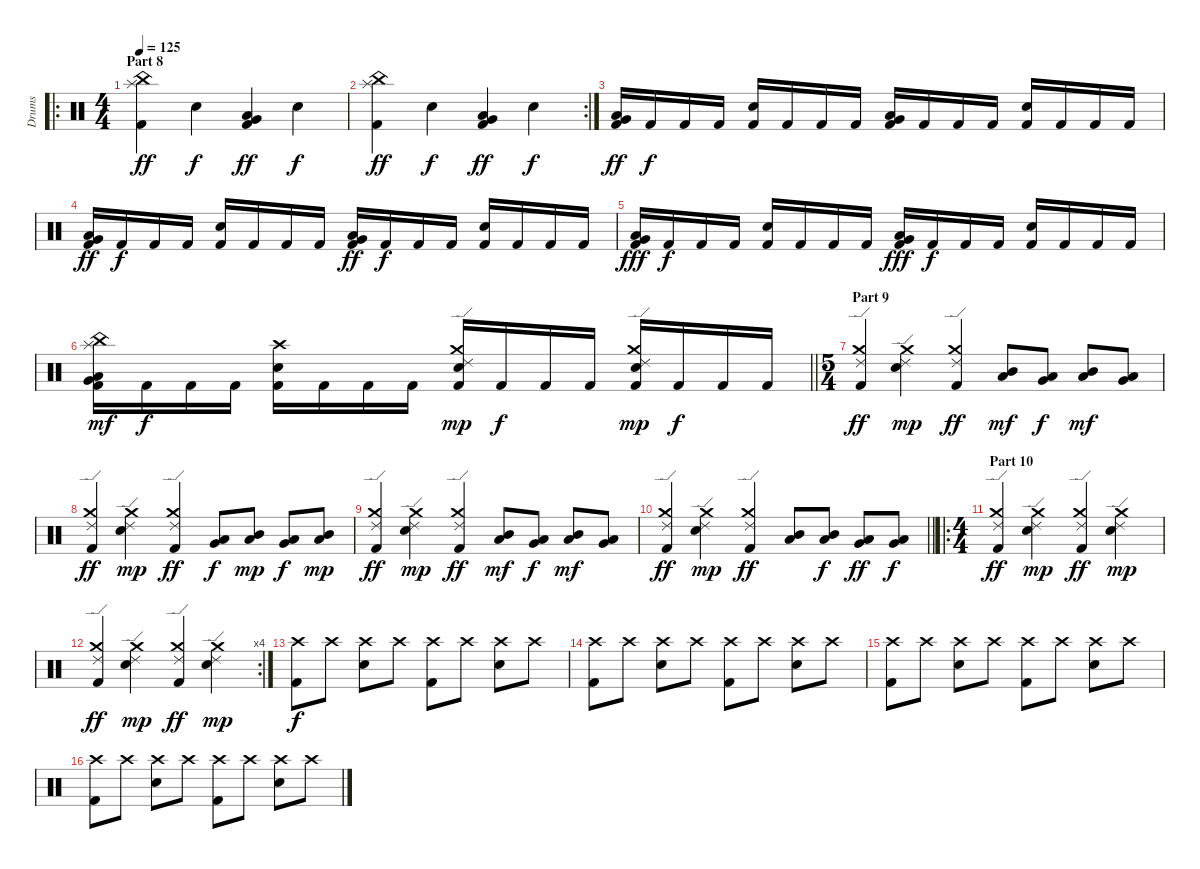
\track ("Drums" "Drums") {instrument percussion}
\staff {score}
\articulation defaults
\ro
\ts (4 4)
\section ("" "Part 8")
\tempo 125
\clef neutral
\ks c
("Splash (hit)" "China (hit)" "Kick (hit) 2").4{dy ff} "Electric Snare (hit)".4{dy f} ("Very Low Tom (hit)" "Low Floor Tom (hit)" "Kick (hit) 2").4{dy ff} "Electric Snare (hit)".4{dy f} |
\rc 2
("Splash (hit)" "China (hit)" "Kick (hit) 2").4{dy ff} "Electric Snare (hit)".4{dy f} ("Very Low Tom (hit)" "Low Floor Tom (hit)" "Kick (hit) 2").4{dy ff} "Electric Snare (hit)".4{dy f} |
("Very Low Tom (hit)" "Low Floor Tom (hit)" "Kick (hit) 2").16{dy ff} "Kick (hit) 2".16{dy f} "Kick (hit) 2".16 "Kick (hit) 2".16 ("Electric Snare (hit)" "Kick (hit) 2").16 "Kick (hit) 2".16 "Kick (hit) 2".16 "Kick (hit) 2".16 ("Very Low Tom (hit)" "Low Floor Tom (hit)" "Kick (hit) 2").16 "Kick (hit) 2".16 "Kick (hit) 2".16 "Kick (hit) 2".16 ("Electric Snare (hit)" "Kick (hit) 2").16 "Kick (hit) 2".16 "Kick (hit) 2".16 "Kick (hit) 2".16 |
("Very Low Tom (hit)" "Low Floor Tom (hit)" "Kick (hit) 2").16{dy ff} "Kick (hit) 2".16{dy f} "Kick (hit) 2".16 "Kick (hit) 2".16 ("Electric Snare (hit)" "Kick (hit) 2").16 "Kick (hit) 2".16 "Kick (hit) 2".16 "Kick (hit) 2".16 ("Very Low Tom (hit)" "Low Floor Tom (hit)" "Kick (hit) 2").16{dy ff} "Kick (hit) 2".16{dy f} "Kick (hit) 2".16 "Kick (hit) 2".16 ("Electric Snare (hit)" "Kick (hit) 2").16 "Kick (hit) 2".16 "Kick (hit) 2".16 "Kick (hit) 2".16 |
("Very Low Tom (hit)" "Low Floor Tom (hit)" "Kick (hit) 2").16{dy fff} "Kick (hit) 2".16{dy f} "Kick (hit) 2".16 "Kick (hit) 2".16 ("Electric Snare (hit)" "Kick (hit) 2").16 "Kick (hit) 2".16 "Kick (hit) 2".16 "Kick (hit) 2".16 ("Very Low Tom (hit)" "Low Floor Tom (hit)" "Kick (hit) 2").16{dy fff} "Kick (hit) 2".16{dy f} "Kick (hit) 2".16 "Kick (hit) 2".16 ("Electric Snare (hit)" "Kick (hit) 2").16 "Kick (hit) 2".16 "Kick (hit) 2".16 "Kick (hit) 2".16 |
\barLineRight lightlight
("Splash (hit)" "China (hit)" "Low Floor Tom (hit)" "Very Low Tom (hit)" "Kick (hit) 2").16{dy mf} "Kick (hit) 2".16{dy f} "Kick (hit) 2".16 "Kick (hit) 2".16 ("Crash high (hit)" "Electric Snare (hit)" "Kick (hit) 2").16 "Kick (hit) 2".16 "Kick (hit) 2".16 "Kick (hit) 2".16 ("Crash medium (hit)" "Ride (edge) 2" "Electric Snare (hit)" "Kick (hit) 2").16{dy mp} "Kick (hit) 2".16{dy f} "Kick (hit) 2".16 "Kick (hit) 2".16 ("Crash medium (hit)" "Ride (edge) 2" "Electric Snare (hit)" "Kick (hit) 2").16{dy mp} "Kick (hit) 2".16{dy f} "Kick (hit) 2".16 "Kick (hit) 2".16 |
\ts (5 4)
\section ("" "Part 9")
("Crash medium (hit)" "Ride (edge) 2" "Kick (hit) 2").4{dy ff} ("Crash medium (hit)" "Ride (edge) 2" "Electric Snare (hit)").4{dy mp} ("Crash medium (hit)" "Ride (edge) 2" "Kick (hit) 2").4{dy ff} ("Low Tom (hit)" "Mid Tom (hit)").8{dy mf} ("Very Low Tom (hit)" "Low Floor Tom (hit)").8{dy f} ("Low Tom (hit)" "Mid Tom (hit)").8{dy mf} ("Very Low Tom (hit)" "Low Floor Tom (hit)").8 |
("Crash medium (hit)" "Ride (edge) 2" "Kick (hit) 2").4{dy ff} ("Crash medium (hit)" "Ride (edge) 2" "Electric Snare (hit)").4{dy mp} ("Crash medium (hit)" "Ride (edge) 2" "Kick (hit) 2").4{dy ff} ("Very Low Tom (hit)" "Low Floor Tom (hit)").8{dy f} ("Low Tom (hit)" "Mid Tom (hit)").8{dy mp} ("Very Low Tom (hit)" "Low Floor Tom (hit)").8{dy f} ("Low Tom (hit)" "Mid Tom (hit)").8{dy mp} |
("Crash medium (hit)" "Ride (edge) 2" "Kick (hit) 2").4{dy ff} ("Crash medium (hit)" "Ride (edge) 2" "Electric Snare (hit)").4{dy mp} ("Crash medium (hit)" "Ride (edge) 2" "Kick (hit) 2").4{dy ff} ("Low Tom (hit)" "Mid Tom (hit)").8{dy mf} ("Very Low Tom (hit)" "Low Floor Tom (hit)").8{dy f} ("Low Tom (hit)" "Mid Tom (hit)").8{dy mf} ("Very Low Tom (hit)" "Low Floor Tom (hit)").8 |
\barLineRight lightlight
("Crash medium (hit)" "Ride (edge) 2" "Kick (hit) 2").4{dy ff} ("Crash medium (hit)" "Ride (edge) 2" "Electric Snare (hit)").4{dy mp} ("Crash medium (hit)" "Ride (edge) 2" "Kick (hit) 2").4{dy ff} ("Low Tom (hit)" "Mid Tom (hit)").8 ("Low Tom (hit)" "Mid Tom (hit)").8{dy f} ("Very Low Tom (hit)" "Low Floor Tom (hit)").8{dy ff} ("Very Low Tom (hit)" "Low Floor Tom (hit)").8{dy f} |
\ro
\ts (4 4)
\section ("" "Part 10")
("Crash medium (hit)" "Ride (edge) 2" "Kick (hit) 2").4{dy ff} ("Crash medium (hit)" "Ride (edge) 2" "Electric Snare (hit)").4{dy mp} ("Crash medium (hit)" "Ride (edge) 2" "Kick (hit) 2").4{dy ff} ("Crash medium (hit)" "Ride (edge) 2" "Electric Snare (hit)").4{dy mp} |
\rc 4
("Crash medium (hit)" "Ride (edge) 2" "Kick (hit) 2").4{dy ff} ("Crash medium (hit)" "Ride (edge) 2" "Electric Snare (hit)").4{dy mp} ("Crash medium (hit)" "Ride (edge) 2" "Kick (hit) 2").4{dy ff} ("Crash medium (hit)" "Ride (edge) 2" "Electric Snare (hit)").4{dy mp} |
("Crash high (hit)" "Kick (hit) 2").8{dy f} "Crash high (hit)".8 ("Crash high (hit)" "Electric Snare (hit)").8 "Crash high (hit)".8 ("Crash high (hit)" "Kick (hit) 2").8 "Crash high (hit)".8 ("Crash high (hit)" "Electric Snare (hit)").8 "Crash high (hit)".8 |
("Crash high (hit)" "Kick (hit) 2").8 "Crash high (hit)".8 ("Crash high (hit)" "Electric Snare (hit)").8 "Crash high (hit)".8 ("Crash high (hit)" "Kick (hit) 2").8 "Crash high (hit)".8 ("Crash high (hit)" "Electric Snare (hit)").8 "Crash high (hit)".8 |
("Crash high (hit)" "Kick (hit) 2").8 "Crash high (hit)".8 ("Crash high (hit)" "Electric Snare (hit)").8 "Crash high (hit)".8 ("Crash high (hit)" "Kick (hit) 2").8 "Crash high (hit)".8 ("Crash high (hit)" "Electric Snare (hit)").8 "Crash high (hit)".8 |
("Crash high (hit)" "Kick (hit) 2").8 "Crash high (hit)".8 ("Crash high (hit)" "Electric Snare (hit)").8 "Crash high (hit)".8 ("Crash high (hit)" "Kick (hit) 2").8 "Crash high (hit)".8 ("Crash high (hit)" "Electric Snare (hit)").8 "Crash high (hit)".8
